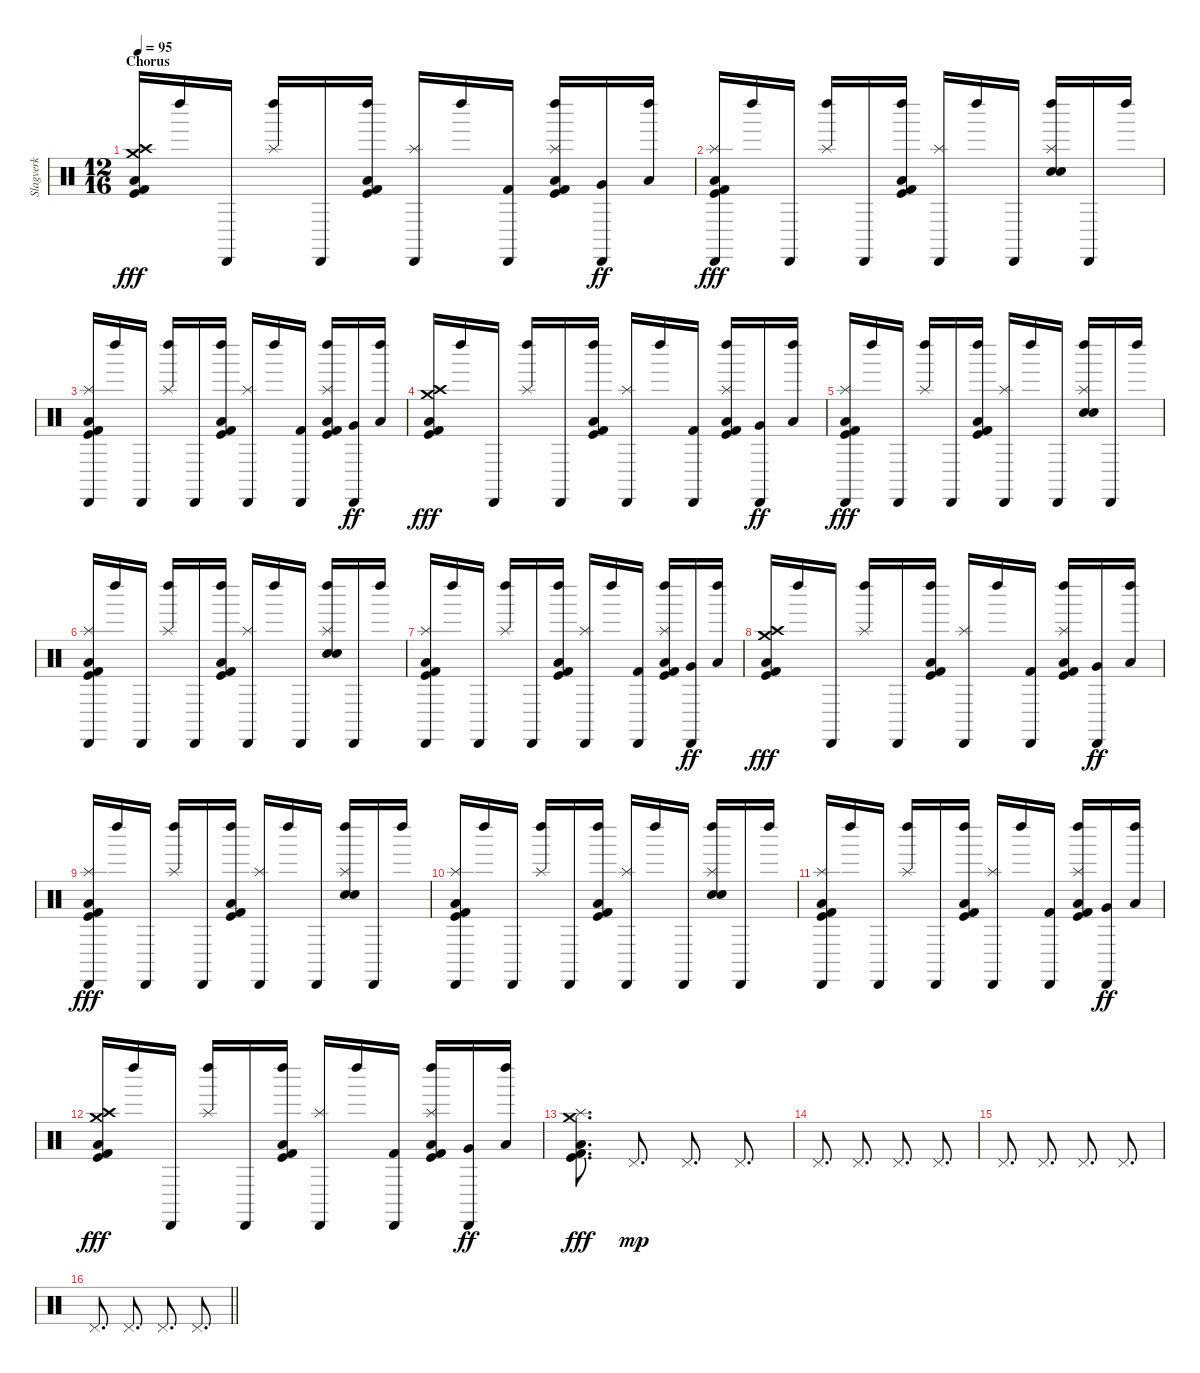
\track ("Slagverk" "Slagverk") {instrument percussion}
\staff {score}
\articulation defaults
\ts (12 16)
\section ("" "Chorus")
\tempo 95
\clef neutral
\ks c
("Crash high (hit)" "Crash medium (hit)" "Low Floor Tom (hit)" "Kick (hit)" "Kick (hit) 2").16{dy fff} "Left Maraca (hit)".16 "Cabasa (hit)".16 ("Left Maraca (hit)" "Splash (hit)").16 "Cabasa (hit)".16 ("Left Maraca (hit)" "Low Floor Tom (hit)" "Kick (hit)" "Kick (hit) 2").16 ("Cabasa (hit)" "Splash (hit)").16 "Left Maraca (hit)".16 ("Cabasa (hit)" "Kick (hit) 2").16 ("Left Maraca (hit)" "Splash (hit)" "Low Tom (hit)" "Kick (hit)" "Kick (hit) 2").16 ("Cabasa (hit)" "Very Low Tom (hit)").16{dy ff} ("Left Maraca (hit)" "Low Floor Tom (hit)").16 |
("Cabasa (hit)" "Splash (hit)" "Low Floor Tom (hit)" "Kick (hit)" "Kick (hit) 2").16{dy fff} "Left Maraca (hit)".16 "Cabasa (hit)".16 ("Left Maraca (hit)" "Splash (hit)").16 "Cabasa (hit)".16 ("Left Maraca (hit)" "Low Floor Tom (hit)" "Kick (hit)" "Kick (hit) 2").16 ("Cabasa (hit)" "Splash (hit)").16 "Left Maraca (hit)".16 "Cabasa (hit)".16 ("Left Maraca (hit)" "Splash (hit)" "Snare (hit) 2" "Electric Snare (hit)").16 "Cabasa (hit)".16 "Left Maraca (hit)".16 |
("Cabasa (hit)" "Splash (hit)" "Low Floor Tom (hit)" "Kick (hit)" "Kick (hit) 2").16 "Left Maraca (hit)".16 "Cabasa (hit)".16 ("Left Maraca (hit)" "Splash (hit)").16 "Cabasa (hit)".16 ("Left Maraca (hit)" "Low Floor Tom (hit)" "Kick (hit)" "Kick (hit) 2").16 ("Cabasa (hit)" "Splash (hit)").16 "Left Maraca (hit)".16 ("Cabasa (hit)" "Kick (hit) 2").16 ("Left Maraca (hit)" "Splash (hit)" "Low Tom (hit)" "Kick (hit)" "Kick (hit) 2").16 ("Cabasa (hit)" "Very Low Tom (hit)").16{dy ff} ("Left Maraca (hit)" "Low Floor Tom (hit)").16 |
("Crash high (hit)" "Crash medium (hit)" "Low Floor Tom (hit)" "Kick (hit)" "Kick (hit) 2").16{dy fff} "Left Maraca (hit)".16 "Cabasa (hit)".16 ("Left Maraca (hit)" "Splash (hit)").16 "Cabasa (hit)".16 ("Left Maraca (hit)" "Low Floor Tom (hit)" "Kick (hit)" "Kick (hit) 2").16 ("Cabasa (hit)" "Splash (hit)").16 "Left Maraca (hit)".16 ("Cabasa (hit)" "Kick (hit) 2").16 ("Left Maraca (hit)" "Splash (hit)" "Low Tom (hit)" "Kick (hit)" "Kick (hit) 2").16 ("Cabasa (hit)" "Very Low Tom (hit)").16{dy ff} ("Left Maraca (hit)" "Low Floor Tom (hit)").16 |
("Cabasa (hit)" "Splash (hit)" "Low Floor Tom (hit)" "Kick (hit)" "Kick (hit) 2").16{dy fff} "Left Maraca (hit)".16 "Cabasa (hit)".16 ("Left Maraca (hit)" "Splash (hit)").16 "Cabasa (hit)".16 ("Left Maraca (hit)" "Low Floor Tom (hit)" "Kick (hit)" "Kick (hit) 2").16 ("Cabasa (hit)" "Splash (hit)").16 "Left Maraca (hit)".16 "Cabasa (hit)".16 ("Left Maraca (hit)" "Splash (hit)" "Snare (hit) 2" "Electric Snare (hit)").16 "Cabasa (hit)".16 "Left Maraca (hit)".16 |
("Cabasa (hit)" "Splash (hit)" "Low Floor Tom (hit)" "Kick (hit)" "Kick (hit) 2").16 "Left Maraca (hit)".16 "Cabasa (hit)".16 ("Left Maraca (hit)" "Splash (hit)").16 "Cabasa (hit)".16 ("Left Maraca (hit)" "Low Floor Tom (hit)" "Kick (hit)" "Kick (hit) 2").16 ("Cabasa (hit)" "Splash (hit)").16 "Left Maraca (hit)".16 "Cabasa (hit)".16 ("Left Maraca (hit)" "Splash (hit)" "Snare (hit) 2" "Electric Snare (hit)").16 "Cabasa (hit)".16 "Left Maraca (hit)".16 |
("Cabasa (hit)" "Splash (hit)" "Low Floor Tom (hit)" "Kick (hit)" "Kick (hit) 2").16 "Left Maraca (hit)".16 "Cabasa (hit)".16 ("Left Maraca (hit)" "Splash (hit)").16 "Cabasa (hit)".16 ("Left Maraca (hit)" "Low Floor Tom (hit)" "Kick (hit)" "Kick (hit) 2").16 ("Cabasa (hit)" "Splash (hit)").16 "Left Maraca (hit)".16 ("Cabasa (hit)" "Kick (hit) 2").16 ("Left Maraca (hit)" "Splash (hit)" "Low Tom (hit)" "Kick (hit)" "Kick (hit) 2").16 ("Cabasa (hit)" "Very Low Tom (hit)").16{dy ff} ("Left Maraca (hit)" "Low Floor Tom (hit)").16 |
("Crash high (hit)" "Crash medium (hit)" "Low Floor Tom (hit)" "Kick (hit)" "Kick (hit) 2").16{dy fff} "Left Maraca (hit)".16 "Cabasa (hit)".16 ("Left Maraca (hit)" "Splash (hit)").16 "Cabasa (hit)".16 ("Left Maraca (hit)" "Low Floor Tom (hit)" "Kick (hit)" "Kick (hit) 2").16 ("Cabasa (hit)" "Splash (hit)").16 "Left Maraca (hit)".16 ("Cabasa (hit)" "Kick (hit) 2").16 ("Left Maraca (hit)" "Splash (hit)" "Low Tom (hit)" "Kick (hit)" "Kick (hit) 2").16 ("Cabasa (hit)" "Very Low Tom (hit)").16{dy ff} ("Left Maraca (hit)" "Low Floor Tom (hit)").16 |
("Cabasa (hit)" "Splash (hit)" "Low Floor Tom (hit)" "Kick (hit)" "Kick (hit) 2").16{dy fff} "Left Maraca (hit)".16 "Cabasa (hit)".16 ("Left Maraca (hit)" "Splash (hit)").16 "Cabasa (hit)".16 ("Left Maraca (hit)" "Low Floor Tom (hit)" "Kick (hit)" "Kick (hit) 2").16 ("Cabasa (hit)" "Splash (hit)").16 "Left Maraca (hit)".16 "Cabasa (hit)".16 ("Left Maraca (hit)" "Splash (hit)" "Snare (hit) 2" "Electric Snare (hit)").16 "Cabasa (hit)".16 "Left Maraca (hit)".16 |
("Cabasa (hit)" "Splash (hit)" "Low Floor Tom (hit)" "Kick (hit)" "Kick (hit) 2").16 "Left Maraca (hit)".16 "Cabasa (hit)".16 ("Left Maraca (hit)" "Splash (hit)").16 "Cabasa (hit)".16 ("Left Maraca (hit)" "Low Floor Tom (hit)" "Kick (hit)" "Kick (hit) 2").16 ("Cabasa (hit)" "Splash (hit)").16 "Left Maraca (hit)".16 "Cabasa (hit)".16 ("Left Maraca (hit)" "Splash (hit)" "Snare (hit) 2" "Electric Snare (hit)").16 "Cabasa (hit)".16 "Left Maraca (hit)".16 |
("Cabasa (hit)" "Splash (hit)" "Low Floor Tom (hit)" "Kick (hit)" "Kick (hit) 2").16 "Left Maraca (hit)".16 "Cabasa (hit)".16 ("Left Maraca (hit)" "Splash (hit)").16 "Cabasa (hit)".16 ("Left Maraca (hit)" "Low Floor Tom (hit)" "Kick (hit)" "Kick (hit) 2").16 ("Cabasa (hit)" "Splash (hit)").16 "Left Maraca (hit)".16 ("Cabasa (hit)" "Kick (hit) 2").16 ("Left Maraca (hit)" "Splash (hit)" "Low Tom (hit)" "Kick (hit)" "Kick (hit) 2").16 ("Cabasa (hit)" "Very Low Tom (hit)").16{dy ff} ("Left Maraca (hit)" "Low Floor Tom (hit)").16 |
("Crash high (hit)" "Crash medium (hit)" "Low Floor Tom (hit)" "Kick (hit)" "Kick (hit) 2").16{dy fff} "Left Maraca (hit)".16 "Cabasa (hit)".16 ("Left Maraca (hit)" "Splash (hit)").16 "Cabasa (hit)".16 ("Left Maraca (hit)" "Low Floor Tom (hit)" "Kick (hit)" "Kick (hit) 2").16 ("Cabasa (hit)" "Splash (hit)").16 "Left Maraca (hit)".16 ("Cabasa (hit)" "Kick (hit) 2").16 ("Left Maraca (hit)" "Splash (hit)" "Low Tom (hit)" "Kick (hit)" "Kick (hit) 2").16 ("Cabasa (hit)" "Very Low Tom (hit)").16{dy ff} ("Left Maraca (hit)" "Low Floor Tom (hit)").16 |
("Crash medium (hit)" "Splash (hit)" "Low Floor Tom (hit)" "Kick (hit)" "Kick (hit) 2").8{d dy fff} "Pedal Hi-Hat (hit)".8{d dy mp} "Pedal Hi-Hat (hit)".8{d} "Pedal Hi-Hat (hit)".8{d} |
"Pedal Hi-Hat (hit)".8{d} "Pedal Hi-Hat (hit)".8{d} "Pedal Hi-Hat (hit)".8{d} "Pedal Hi-Hat (hit)".8{d} |
"Pedal Hi-Hat (hit)".8{d} "Pedal Hi-Hat (hit)".8{d} "Pedal Hi-Hat (hit)".8{d} "Pedal Hi-Hat (hit)".8{d} |
\barLineRight lightlight "Pedal Hi-Hat (hit)".8{d} "Pedal Hi-Hat (hit)".8{d} "Pedal Hi-Hat (hit)".8{d} "Pedal Hi-Hat (hit)".8{d}
